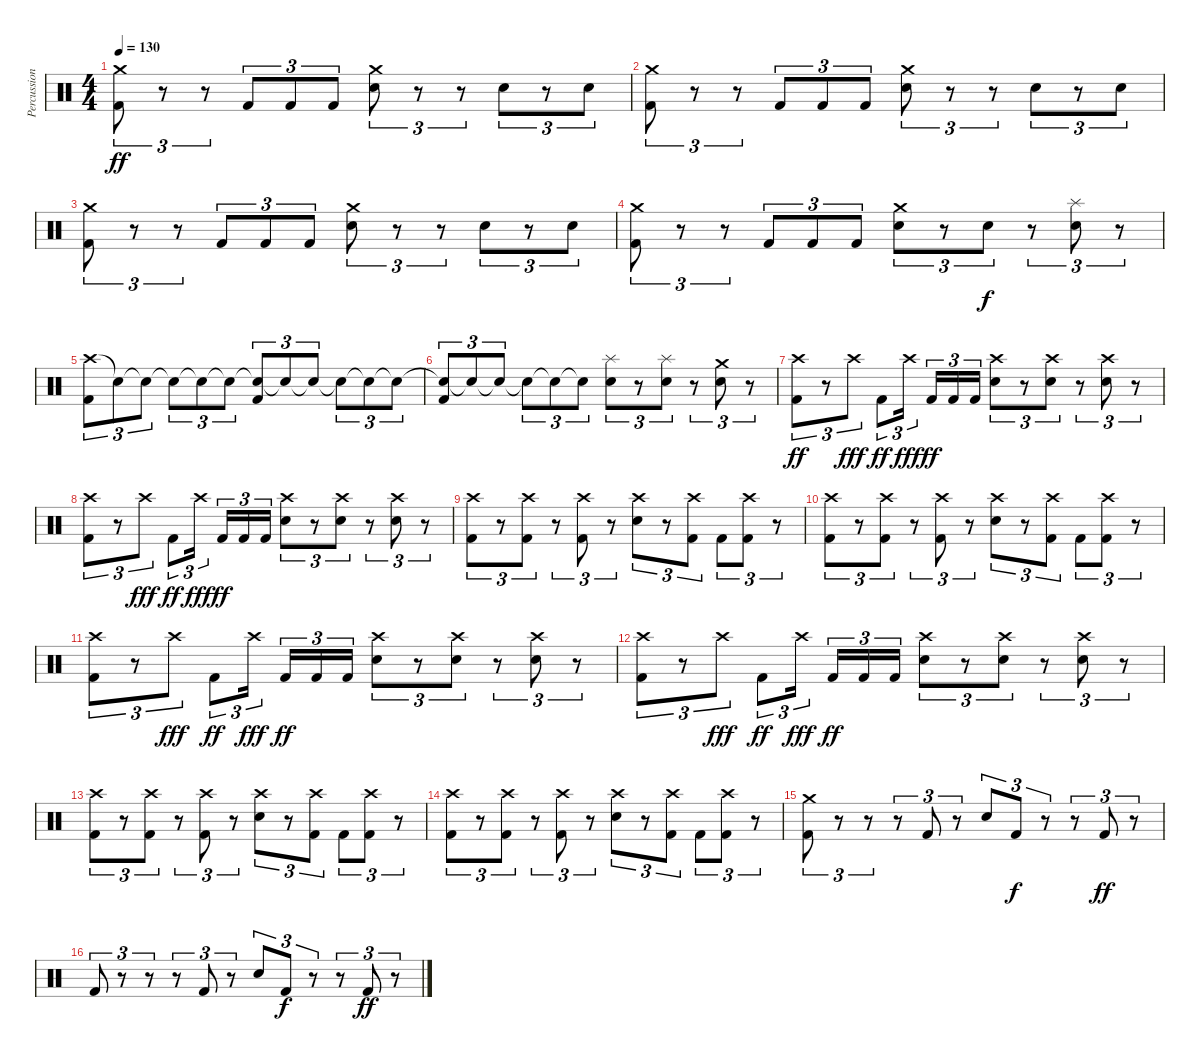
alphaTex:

\track ("Percussion" "Percussion") {instrument percussion bank 95}
\staff {score}
\articulation defaults
\ts (4 4)
\tempo 130
\clef neutral
\ks c
("Crash medium (hit)" "Kick (hit) 2").8{tu (3 2) dy ff} r.8{tu (3 2)} r.8{tu (3 2)} "Kick (hit) 2".8{tu (3 2)} "Kick (hit) 2".8{tu (3 2)} "Kick (hit) 2".8{tu (3 2)} ("Crash medium (hit)" "Snare (hit) 2").8{tu (3 2)} r.8{tu (3 2)} r.8{tu (3 2)} "Snare (hit) 2".8{tu (3 2)} r.8{tu (3 2)} "Snare (hit) 2".8{tu (3 2)} |
("Crash medium (hit)" "Kick (hit) 2").8{tu (3 2)} r.8{tu (3 2)} r.8{tu (3 2)} "Kick (hit) 2".8{tu (3 2)} "Kick (hit) 2".8{tu (3 2)} "Kick (hit) 2".8{tu (3 2)} ("Crash medium (hit)" "Snare (hit) 2").8{tu (3 2)} r.8{tu (3 2)} r.8{tu (3 2)} "Snare (hit) 2".8{tu (3 2)} r.8{tu (3 2)} "Snare (hit) 2".8{tu (3 2)} |
("Crash medium (hit)" "Kick (hit) 2").8{tu (3 2)} r.8{tu (3 2)} r.8{tu (3 2)} "Kick (hit) 2".8{tu (3 2)} "Kick (hit) 2".8{tu (3 2)} "Kick (hit) 2".8{tu (3 2)} ("Crash medium (hit)" "Snare (hit) 2").8{tu (3 2)} r.8{tu (3 2)} r.8{tu (3 2)} "Snare (hit) 2".8{tu (3 2)} r.8{tu (3 2)} "Snare (hit) 2".8{tu (3 2)} |
("Crash medium (hit)" "Kick (hit) 2").8{tu (3 2)} r.8{tu (3 2)} r.8{tu (3 2)} "Kick (hit) 2".8{tu (3 2)} "Kick (hit) 2".8{tu (3 2)} "Kick (hit) 2".8{tu (3 2)} ("Crash medium (hit)" "Snare (hit) 2").8{tu (3 2)} r.8{tu (3 2)} "Snare (hit) 2".8{tu (3 2) dy f} r.8{tu (3 2)} ("Splash (hit)" "Snare (hit) 2").8{tu (3 2)} r.8{tu (3 2)} |
("Crash high (hit)" "Kick (hit) 2").8{tu (3 2)} "Snare (hit)"{t}.8{tu (3 2)} "Snare (hit)"{t}.8{tu (3 2)} "Snare (hit)"{t}.8{tu (3 2)} "Snare (hit)"{t}.8{tu (3 2)} "Snare (hit)"{t}.8{tu (3 2)} ("Snare (hit)"{t} "Kick (hit) 2").8{tu (3 2)} "Snare (hit)"{t}.8{tu (3 2)} "Snare (hit)"{t}.8{tu (3 2)} "Snare (hit)"{t}.8{tu (3 2)} "Snare (hit)"{t}.8{tu (3 2)} "Snare (hit)"{t}.8{tu (3 2)} |
("Snare (hit)"{t} "Kick (hit) 2").8{tu (3 2)} "Snare (hit)"{t}.8{tu (3 2)} "Snare (hit)"{t}.8{tu (3 2)} "Snare (hit)"{t}.8{tu (3 2)} "Snare (hit)"{t}.8{tu (3 2)} "Snare (hit)"{t}.8{tu (3 2)} ("Splash (hit)" "Snare (hit) 2").8{tu (3 2)} r.8{tu (3 2)} ("Splash (hit)" "Snare (hit) 2").8{tu (3 2)} r.8{tu (3 2)} ("Crash medium (hit)" "Snare (hit) 2").8{tu (3 2)} r.8{tu (3 2)} |
("Crash high (hit)" "Kick (hit) 2").8{tu (3 2) dy ff} r.8{tu (3 2)} "Crash high (hit)".8{tu (3 2) dy fff} "Kick (hit) 2".8{tu (3 2) dy ff} "Crash high (hit)".16{tu (3 2) dy fff beam splitsecondary} "Kick (hit) 2".16{tu (3 2) dy ff} "Kick (hit) 2".16{tu (3 2)} "Kick (hit) 2".16{tu (3 2)} ("Crash high (hit)" "Snare (hit) 2").8{tu (3 2)} r.8{tu (3 2)} ("Crash high (hit)" "Snare (hit) 2").8{tu (3 2)} r.8{tu (3 2)} ("Crash high (hit)" "Snare (hit) 2").8{tu (3 2)} r.8{tu (3 2)} |
("Crash high (hit)" "Kick (hit) 2").8{tu (3 2)} r.8{tu (3 2)} "Crash high (hit)".8{tu (3 2) dy fff} "Kick (hit) 2".8{tu (3 2) dy ff} "Crash high (hit)".16{tu (3 2) dy fff beam splitsecondary} "Kick (hit) 2".16{tu (3 2) dy ff} "Kick (hit) 2".16{tu (3 2)} "Kick (hit) 2".16{tu (3 2)} ("Crash high (hit)" "Snare (hit) 2").8{tu (3 2)} r.8{tu (3 2)} ("Crash high (hit)" "Snare (hit) 2").8{tu (3 2)} r.8{tu (3 2)} ("Crash high (hit)" "Snare (hit) 2").8{tu (3 2)} r.8{tu (3 2)} |
("Crash high (hit)" "Kick (hit) 2").8{tu (3 2)} r.8{tu (3 2)} ("Crash high (hit)" "Kick (hit) 2").8{tu (3 2)} r.8{tu (3 2)} ("Crash high (hit)" "Kick (hit) 2").8{tu (3 2)} r.8{tu (3 2)} ("Crash high (hit)" "Snare (hit) 2").8{tu (3 2)} r.8{tu (3 2)} ("Crash high (hit)" "Kick (hit) 2").8{tu (3 2)} "Kick (hit) 2".8{tu (3 2)} ("Crash high (hit)" "Kick (hit) 2").8{tu (3 2)} r.8{tu (3 2)} |
("Crash high (hit)" "Kick (hit) 2").8{tu (3 2)} r.8{tu (3 2)} ("Crash high (hit)" "Kick (hit) 2").8{tu (3 2)} r.8{tu (3 2)} ("Crash high (hit)" "Kick (hit) 2").8{tu (3 2)} r.8{tu (3 2)} ("Crash high (hit)" "Snare (hit) 2").8{tu (3 2)} r.8{tu (3 2)} ("Crash high (hit)" "Kick (hit) 2").8{tu (3 2)} "Kick (hit) 2".8{tu (3 2)} ("Crash high (hit)" "Kick (hit) 2").8{tu (3 2)} r.8{tu (3 2)} |
("Crash high (hit)" "Kick (hit) 2").8{tu (3 2)} r.8{tu (3 2)} "Crash high (hit)".8{tu (3 2) dy fff} "Kick (hit) 2".8{tu (3 2) dy ff} "Crash high (hit)".16{tu (3 2) dy fff beam splitsecondary} "Kick (hit) 2".16{tu (3 2) dy ff} "Kick (hit) 2".16{tu (3 2)} "Kick (hit) 2".16{tu (3 2)} ("Crash high (hit)" "Snare (hit) 2").8{tu (3 2)} r.8{tu (3 2)} ("Crash high (hit)" "Snare (hit) 2").8{tu (3 2)} r.8{tu (3 2)} ("Crash high (hit)" "Snare (hit) 2").8{tu (3 2)} r.8{tu (3 2)} |
("Crash high (hit)" "Kick (hit) 2").8{tu (3 2)} r.8{tu (3 2)} "Crash high (hit)".8{tu (3 2) dy fff} "Kick (hit) 2".8{tu (3 2) dy ff} "Crash high (hit)".16{tu (3 2) dy fff beam splitsecondary} "Kick (hit) 2".16{tu (3 2) dy ff} "Kick (hit) 2".16{tu (3 2)} "Kick (hit) 2".16{tu (3 2)} ("Crash high (hit)" "Snare (hit) 2").8{tu (3 2)} r.8{tu (3 2)} ("Crash high (hit)" "Snare (hit) 2").8{tu (3 2)} r.8{tu (3 2)} ("Crash high (hit)" "Snare (hit) 2").8{tu (3 2)} r.8{tu (3 2)} |
("Crash high (hit)" "Kick (hit) 2").8{tu (3 2)} r.8{tu (3 2)} ("Crash high (hit)" "Kick (hit) 2").8{tu (3 2)} r.8{tu (3 2)} ("Crash high (hit)" "Kick (hit) 2").8{tu (3 2)} r.8{tu (3 2)} ("Crash high (hit)" "Snare (hit) 2").8{tu (3 2)} r.8{tu (3 2)} ("Crash high (hit)" "Kick (hit) 2").8{tu (3 2)} "Kick (hit) 2".8{tu (3 2)} ("Crash high (hit)" "Kick (hit) 2").8{tu (3 2)} r.8{tu (3 2)} |
("Crash high (hit)" "Kick (hit) 2").8{tu (3 2)} r.8{tu (3 2)} ("Crash high (hit)" "Kick (hit) 2").8{tu (3 2)} r.8{tu (3 2)} ("Crash high (hit)" "Kick (hit) 2").8{tu (3 2)} r.8{tu (3 2)} ("Crash high (hit)" "Snare (hit) 2").8{tu (3 2)} r.8{tu (3 2)} ("Crash high (hit)" "Kick (hit) 2").8{tu (3 2)} "Kick (hit) 2".8{tu (3 2)} ("Crash high (hit)" "Kick (hit) 2").8{tu (3 2)} r.8{tu (3 2)} |
("Crash medium (hit)" "Kick (hit) 2").8{tu (3 2)} r.8{tu (3 2)} r.8{tu (3 2)} r.8{tu (3 2)} "Kick (hit) 2".8{tu (3 2)} r.8{tu (3 2)} "Snare (hit) 2".8{tu (3 2)} "Kick (hit) 2".8{tu (3 2) dy f} r.8{tu (3 2)} r.8{tu (3 2)} "Kick (hit) 2".8{tu (3 2) dy ff} r.8{tu (3 2)} |
"Kick (hit) 2".8{tu (3 2)} r.8{tu (3 2)} r.8{tu (3 2)} r.8{tu (3 2)} "Kick (hit) 2".8{tu (3 2)} r.8{tu (3 2)} "Snare (hit) 2".8{tu (3 2)} "Kick (hit) 2".8{tu (3 2) dy f} r.8{tu (3 2)} r.8{tu (3 2)} "Kick (hit) 2".8{tu (3 2) dy ff} r.8{tu (3 2)}
